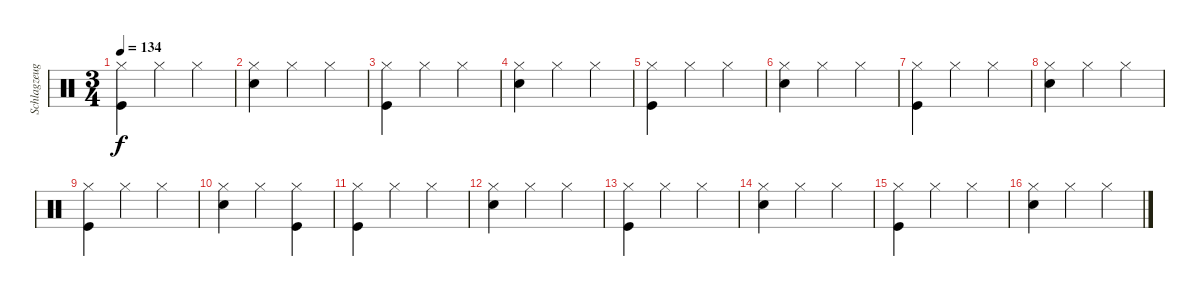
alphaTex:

\track ("Schlagzeug" "Schlagzeug") {instrument percussion}
\staff {score}
\articulation defaults
\ts (3 4)
\tempo 134
\clef neutral
\ks c
("Hi-Hat (closed)" "Kick (hit)").4{dy f} "Hi-Hat (closed)".4 "Hi-Hat (closed)".4 |
("Hi-Hat (closed)" "Snare (hit) 2").4 "Hi-Hat (closed)".4 "Hi-Hat (closed)".4 |
("Hi-Hat (closed)" "Kick (hit)").4 "Hi-Hat (closed)".4 "Hi-Hat (closed)".4 |
("Hi-Hat (closed)" "Snare (hit) 2").4 "Hi-Hat (closed)".4 "Hi-Hat (closed)".4 |
("Hi-Hat (closed)" "Kick (hit)").4 "Hi-Hat (closed)".4 "Hi-Hat (closed)".4 |
("Hi-Hat (closed)" "Snare (hit) 2").4 "Hi-Hat (closed)".4 "Hi-Hat (closed)".4 |
("Hi-Hat (closed)" "Kick (hit)").4 "Hi-Hat (closed)".4 "Hi-Hat (closed)".4 |
("Hi-Hat (closed)" "Snare (hit) 2").4 "Hi-Hat (closed)".4 "Hi-Hat (closed)".4 |
("Hi-Hat (closed)" "Kick (hit)").4 "Hi-Hat (closed)".4 "Hi-Hat (closed)".4 |
("Hi-Hat (closed)" "Snare (hit) 2").4 "Hi-Hat (closed)".4 ("Hi-Hat (closed)" "Kick (hit)").4 |
("Hi-Hat (closed)" "Kick (hit)").4 "Hi-Hat (closed)".4 "Hi-Hat (closed)".4 |
("Hi-Hat (closed)" "Snare (hit) 2").4 "Hi-Hat (closed)".4 "Hi-Hat (closed)".4 |
("Hi-Hat (closed)" "Kick (hit)").4 "Hi-Hat (closed)".4 "Hi-Hat (closed)".4 |
("Hi-Hat (closed)" "Snare (hit) 2").4 "Hi-Hat (closed)".4 "Hi-Hat (closed)".4 |
("Hi-Hat (closed)" "Kick (hit)").4 "Hi-Hat (closed)".4 "Hi-Hat (closed)".4 |
("Hi-Hat (closed)" "Snare (hit) 2").4 "Hi-Hat (closed)".4 "Hi-Hat (closed)".4
